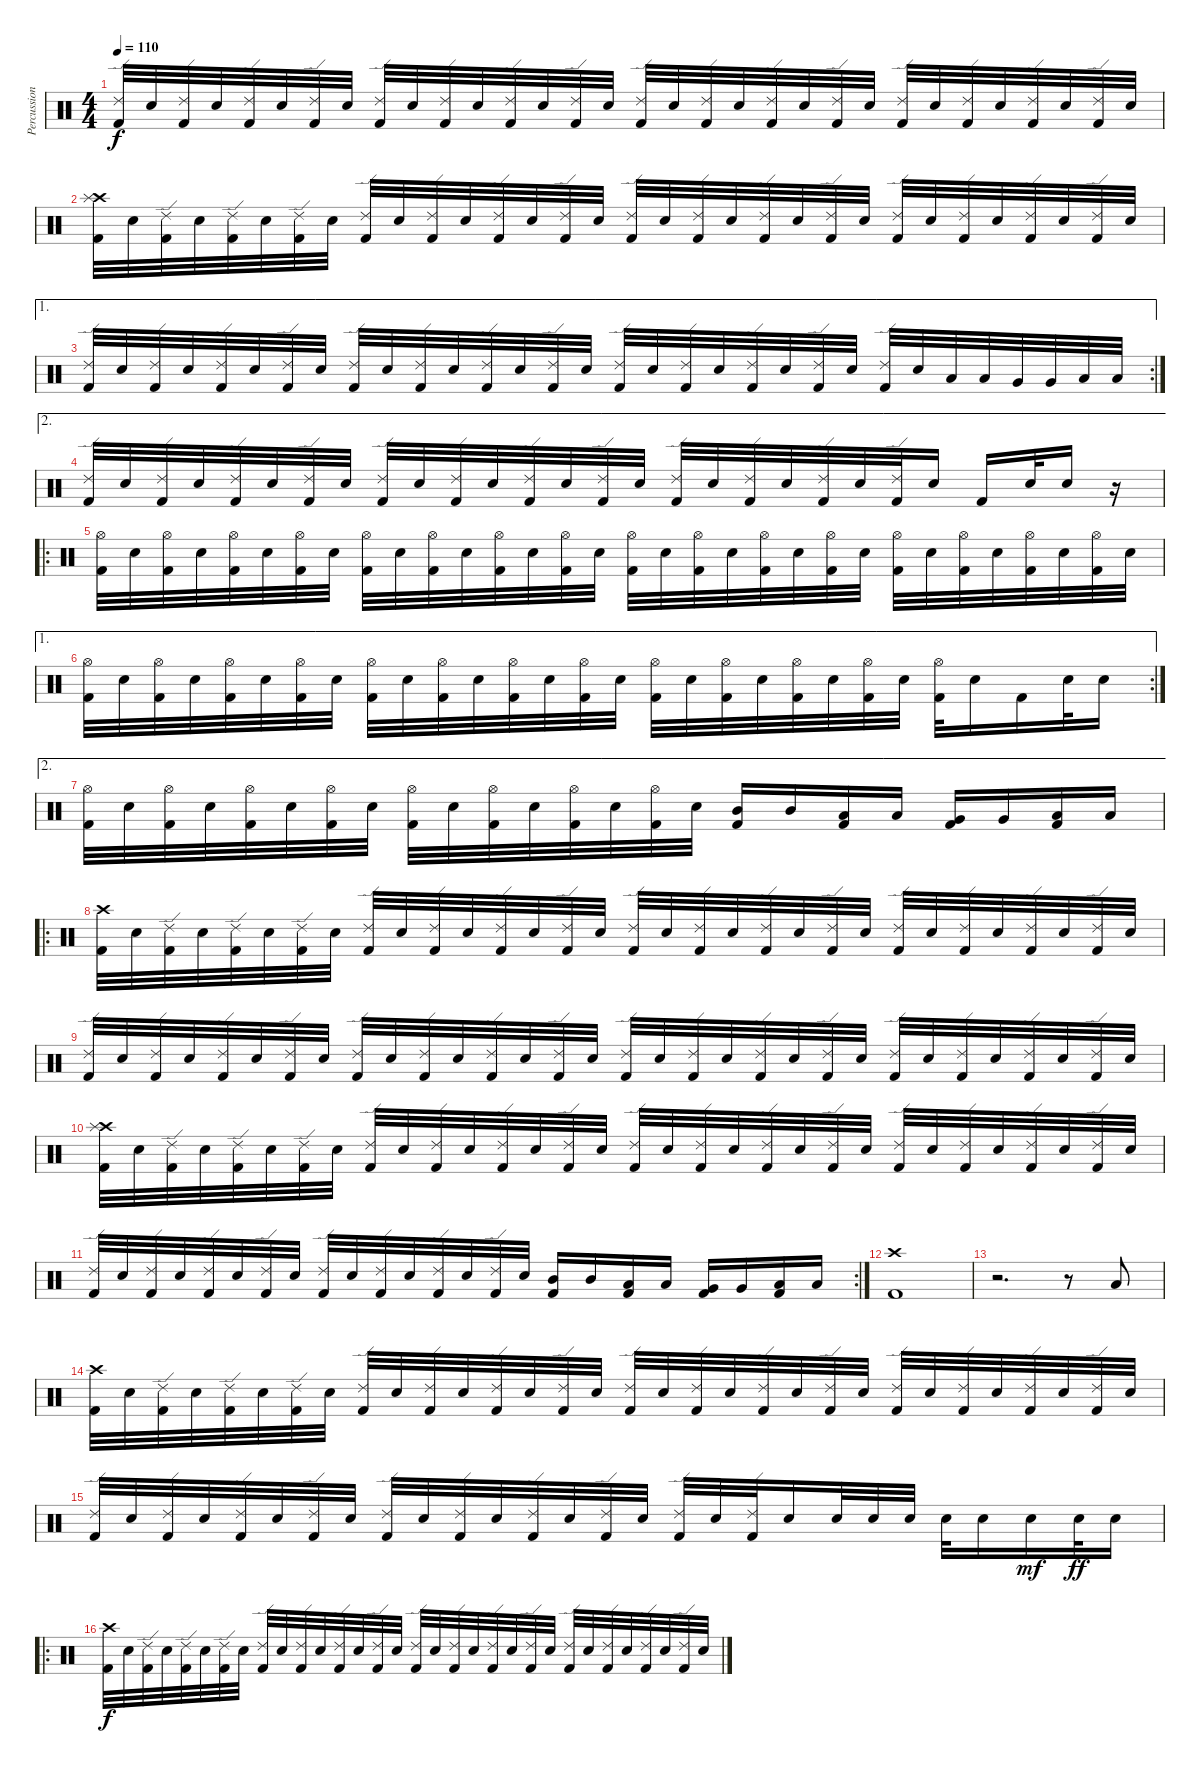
\track ("Percussion" "Percussion") {instrument percussion}
\staff {score}
\articulation defaults
\ts (4 4)
\tempo 110
\clef neutral
\ks c
("Ride (edge) 2" "Kick (hit) 2").32{dy f} "Snare (hit) 2".32 ("Ride (edge) 2" "Kick (hit) 2").32 "Snare (hit) 2".32 ("Ride (edge) 2" "Kick (hit) 2").32 "Snare (hit) 2".32 ("Ride (edge) 2" "Kick (hit) 2").32 "Snare (hit) 2".32 ("Ride (edge) 2" "Kick (hit) 2").32 "Snare (hit) 2".32 ("Ride (edge) 2" "Kick (hit) 2").32 "Snare (hit) 2".32 ("Ride (edge) 2" "Kick (hit) 2").32 "Snare (hit) 2".32 ("Ride (edge) 2" "Kick (hit) 2").32 "Snare (hit) 2".32 ("Ride (edge) 2" "Kick (hit) 2").32 "Snare (hit) 2".32 ("Ride (edge) 2" "Kick (hit) 2").32 "Snare (hit) 2".32 ("Ride (edge) 2" "Kick (hit) 2").32 "Snare (hit) 2".32 ("Ride (edge) 2" "Kick (hit) 2").32 "Snare (hit) 2".32 ("Ride (edge) 2" "Kick (hit) 2").32 "Snare (hit) 2".32 ("Ride (edge) 2" "Kick (hit) 2").32 "Snare (hit) 2".32 ("Ride (edge) 2" "Kick (hit) 2").32 "Snare (hit) 2".32 ("Ride (edge) 2" "Kick (hit) 2").32 "Snare (hit) 2".32 |
("Crash high (hit)" "Splash (hit)" "Kick (hit) 2").32 "Snare (hit) 2".32 ("Ride (edge) 2" "Kick (hit) 2").32 "Snare (hit) 2".32 ("Ride (edge) 2" "Kick (hit) 2").32 "Snare (hit) 2".32 ("Ride (edge) 2" "Kick (hit) 2").32 "Snare (hit) 2".32 ("Ride (edge) 2" "Kick (hit) 2").32 "Snare (hit) 2".32 ("Ride (edge) 2" "Kick (hit) 2").32 "Snare (hit) 2".32 ("Ride (edge) 2" "Kick (hit) 2").32 "Snare (hit) 2".32 ("Ride (edge) 2" "Kick (hit) 2").32 "Snare (hit) 2".32 ("Ride (edge) 2" "Kick (hit) 2").32 "Snare (hit) 2".32 ("Ride (edge) 2" "Kick (hit) 2").32 "Snare (hit) 2".32 ("Ride (edge) 2" "Kick (hit) 2").32 "Snare (hit) 2".32 ("Ride (edge) 2" "Kick (hit) 2").32 "Snare (hit) 2".32 ("Ride (edge) 2" "Kick (hit) 2").32 "Snare (hit) 2".32 ("Ride (edge) 2" "Kick (hit) 2").32 "Snare (hit) 2".32 ("Ride (edge) 2" "Kick (hit) 2").32 "Snare (hit) 2".32 ("Ride (edge) 2" "Kick (hit) 2").32 "Snare (hit) 2".32 |
\ae 1
\rc 2
("Ride (edge) 2" "Kick (hit) 2").32 "Snare (hit) 2".32 ("Ride (edge) 2" "Kick (hit) 2").32 "Snare (hit) 2".32 ("Ride (edge) 2" "Kick (hit) 2").32 "Snare (hit) 2".32 ("Ride (edge) 2" "Kick (hit) 2").32 "Snare (hit) 2".32 ("Ride (edge) 2" "Kick (hit) 2").32 "Snare (hit) 2".32 ("Ride (edge) 2" "Kick (hit) 2").32 "Snare (hit) 2".32 ("Ride (edge) 2" "Kick (hit) 2").32 "Snare (hit) 2".32 ("Ride (edge) 2" "Kick (hit) 2").32 "Snare (hit) 2".32 ("Ride (edge) 2" "Kick (hit) 2").32 "Snare (hit) 2".32 ("Ride (edge) 2" "Kick (hit) 2").32 "Snare (hit) 2".32 ("Ride (edge) 2" "Kick (hit) 2").32 "Snare (hit) 2".32 ("Ride (edge) 2" "Kick (hit) 2").32 "Snare (hit) 2".32 ("Ride (edge) 2" "Kick (hit) 2").32 "Snare (hit) 2".32 "Low Tom (hit)".32 "Low Tom (hit)".32 "Very Low Tom (hit)".32 "Very Low Tom (hit)".32 "Low Floor Tom (hit)".32 "Low Floor Tom (hit)".32 |
\ae 2
("Ride (edge) 2" "Kick (hit) 2").32 "Snare (hit) 2".32 ("Ride (edge) 2" "Kick (hit) 2").32 "Snare (hit) 2".32 ("Ride (edge) 2" "Kick (hit) 2").32 "Snare (hit) 2".32 ("Ride (edge) 2" "Kick (hit) 2").32 "Snare (hit) 2".32 ("Ride (edge) 2" "Kick (hit) 2").32 "Snare (hit) 2".32 ("Ride (edge) 2" "Kick (hit) 2").32 "Snare (hit) 2".32 ("Ride (edge) 2" "Kick (hit) 2").32 "Snare (hit) 2".32 ("Ride (edge) 2" "Kick (hit) 2").32 "Snare (hit) 2".32 ("Ride (edge) 2" "Kick (hit) 2").32 "Snare (hit) 2".32 ("Ride (edge) 2" "Kick (hit) 2").32 "Snare (hit) 2".32 ("Ride (edge) 2" "Kick (hit) 2").32 "Snare (hit) 2".32 ("Ride (edge) 2" "Kick (hit) 2").32 "Snare (hit) 2".16 "Kick (hit) 2".16 "Snare (hit) 2".32 "Snare (hit) 2".16 r.16 |
\ro
("Hi-Hat (open)" "Kick (hit) 2").32 "Snare (hit) 2".32 ("Hi-Hat (open)" "Kick (hit) 2").32 "Snare (hit) 2".32 ("Hi-Hat (open)" "Kick (hit) 2").32 "Snare (hit) 2".32 ("Hi-Hat (open)" "Kick (hit) 2").32 "Snare (hit) 2".32 ("Hi-Hat (open)" "Kick (hit) 2").32 "Snare (hit) 2".32 ("Hi-Hat (open)" "Kick (hit) 2").32 "Snare (hit) 2".32 ("Hi-Hat (open)" "Kick (hit) 2").32 "Snare (hit) 2".32 ("Hi-Hat (open)" "Kick (hit) 2").32 "Snare (hit) 2".32 ("Hi-Hat (open)" "Kick (hit) 2").32 "Snare (hit) 2".32 ("Hi-Hat (open)" "Kick (hit) 2").32 "Snare (hit) 2".32 ("Hi-Hat (open)" "Kick (hit) 2").32 "Snare (hit) 2".32 ("Hi-Hat (open)" "Kick (hit) 2").32 "Snare (hit) 2".32 ("Hi-Hat (open)" "Kick (hit) 2").32 "Snare (hit) 2".32 ("Hi-Hat (open)" "Kick (hit) 2").32 "Snare (hit) 2".32 ("Hi-Hat (open)" "Kick (hit) 2").32 "Snare (hit) 2".32 ("Hi-Hat (open)" "Kick (hit) 2").32 "Snare (hit) 2".32 |
\ae 1
\rc 2
("Hi-Hat (open)" "Kick (hit) 2").32 "Snare (hit) 2".32 ("Hi-Hat (open)" "Kick (hit) 2").32 "Snare (hit) 2".32 ("Hi-Hat (open)" "Kick (hit) 2").32 "Snare (hit) 2".32 ("Hi-Hat (open)" "Kick (hit) 2").32 "Snare (hit) 2".32 ("Hi-Hat (open)" "Kick (hit) 2").32 "Snare (hit) 2".32 ("Hi-Hat (open)" "Kick (hit) 2").32 "Snare (hit) 2".32 ("Hi-Hat (open)" "Kick (hit) 2").32 "Snare (hit) 2".32 ("Hi-Hat (open)" "Kick (hit) 2").32 "Snare (hit) 2".32 ("Hi-Hat (open)" "Kick (hit) 2").32 "Snare (hit) 2".32 ("Hi-Hat (open)" "Kick (hit) 2").32 "Snare (hit) 2".32 ("Hi-Hat (open)" "Kick (hit) 2").32 "Snare (hit) 2".32 ("Hi-Hat (open)" "Kick (hit) 2").32 "Snare (hit) 2".32 ("Hi-Hat (open)" "Kick (hit) 2").32 "Snare (hit) 2".16 "Kick (hit) 2".16 "Snare (hit) 2".32 "Snare (hit) 2".16 |
\ae 2
("Hi-Hat (open)" "Kick (hit) 2").32 "Snare (hit) 2".32 ("Hi-Hat (open)" "Kick (hit) 2").32 "Snare (hit) 2".32 ("Hi-Hat (open)" "Kick (hit) 2").32 "Snare (hit) 2".32 ("Hi-Hat (open)" "Kick (hit) 2").32 "Snare (hit) 2".32 ("Hi-Hat (open)" "Kick (hit) 2").32 "Snare (hit) 2".32 ("Hi-Hat (open)" "Kick (hit) 2").32 "Snare (hit) 2".32 ("Hi-Hat (open)" "Kick (hit) 2").32 "Snare (hit) 2".32 ("Hi-Hat (open)" "Kick (hit) 2").32 "Snare (hit) 2".32 ("Mid Tom (hit)" "Kick (hit) 2").16 "Mid Tom (hit)".16 ("Low Tom (hit)" "Kick (hit) 2").16 "Low Tom (hit)".16 ("Very Low Tom (hit)" "Kick (hit) 2").16 "Very Low Tom (hit)".16 ("Low Floor Tom (hit)" "Kick (hit) 2").16 "Low Floor Tom (hit)".16 |
\ro
("Crash high (hit)" "Kick (hit) 2").32 "Snare (hit) 2".32 ("Ride (edge) 2" "Kick (hit) 2").32 "Snare (hit) 2".32 ("Ride (edge) 2" "Kick (hit) 2").32 "Snare (hit) 2".32 ("Ride (edge) 2" "Kick (hit) 2").32 "Snare (hit) 2".32 ("Ride (edge) 2" "Kick (hit) 2").32 "Snare (hit) 2".32 ("Ride (edge) 2" "Kick (hit) 2").32 "Snare (hit) 2".32 ("Ride (edge) 2" "Kick (hit) 2").32 "Snare (hit) 2".32 ("Ride (edge) 2" "Kick (hit) 2").32 "Snare (hit) 2".32 ("Ride (edge) 2" "Kick (hit) 2").32 "Snare (hit) 2".32 ("Ride (edge) 2" "Kick (hit) 2").32 "Snare (hit) 2".32 ("Ride (edge) 2" "Kick (hit) 2").32 "Snare (hit) 2".32 ("Ride (edge) 2" "Kick (hit) 2").32 "Snare (hit) 2".32 ("Ride (edge) 2" "Kick (hit) 2").32 "Snare (hit) 2".32 ("Ride (edge) 2" "Kick (hit) 2").32 "Snare (hit) 2".32 ("Ride (edge) 2" "Kick (hit) 2").32 "Snare (hit) 2".32 ("Ride (edge) 2" "Kick (hit) 2").32 "Snare (hit) 2".32 |
("Ride (edge) 2" "Kick (hit) 2").32 "Snare (hit) 2".32 ("Ride (edge) 2" "Kick (hit) 2").32 "Snare (hit) 2".32 ("Ride (edge) 2" "Kick (hit) 2").32 "Snare (hit) 2".32 ("Ride (edge) 2" "Kick (hit) 2").32 "Snare (hit) 2".32 ("Ride (edge) 2" "Kick (hit) 2").32 "Snare (hit) 2".32 ("Ride (edge) 2" "Kick (hit) 2").32 "Snare (hit) 2".32 ("Ride (edge) 2" "Kick (hit) 2").32 "Snare (hit) 2".32 ("Ride (edge) 2" "Kick (hit) 2").32 "Snare (hit) 2".32 ("Ride (edge) 2" "Kick (hit) 2").32 "Snare (hit) 2".32 ("Ride (edge) 2" "Kick (hit) 2").32 "Snare (hit) 2".32 ("Ride (edge) 2" "Kick (hit) 2").32 "Snare (hit) 2".32 ("Ride (edge) 2" "Kick (hit) 2").32 "Snare (hit) 2".32 ("Ride (edge) 2" "Kick (hit) 2").32 "Snare (hit) 2".32 ("Ride (edge) 2" "Kick (hit) 2").32 "Snare (hit) 2".32 ("Ride (edge) 2" "Kick (hit) 2").32 "Snare (hit) 2".32 ("Ride (edge) 2" "Kick (hit) 2").32 "Snare (hit) 2".32 |
("Crash high (hit)" "Splash (hit)" "Kick (hit) 2").32 "Snare (hit) 2".32 ("Ride (edge) 2" "Kick (hit) 2").32 "Snare (hit) 2".32 ("Ride (edge) 2" "Kick (hit) 2").32 "Snare (hit) 2".32 ("Ride (edge) 2" "Kick (hit) 2").32 "Snare (hit) 2".32 ("Ride (edge) 2" "Kick (hit) 2").32 "Snare (hit) 2".32 ("Ride (edge) 2" "Kick (hit) 2").32 "Snare (hit) 2".32 ("Ride (edge) 2" "Kick (hit) 2").32 "Snare (hit) 2".32 ("Ride (edge) 2" "Kick (hit) 2").32 "Snare (hit) 2".32 ("Ride (edge) 2" "Kick (hit) 2").32 "Snare (hit) 2".32 ("Ride (edge) 2" "Kick (hit) 2").32 "Snare (hit) 2".32 ("Ride (edge) 2" "Kick (hit) 2").32 "Snare (hit) 2".32 ("Ride (edge) 2" "Kick (hit) 2").32 "Snare (hit) 2".32 ("Ride (edge) 2" "Kick (hit) 2").32 "Snare (hit) 2".32 ("Ride (edge) 2" "Kick (hit) 2").32 "Snare (hit) 2".32 ("Ride (edge) 2" "Kick (hit) 2").32 "Snare (hit) 2".32 ("Ride (edge) 2" "Kick (hit) 2").32 "Snare (hit) 2".32 |
\rc 2
("Ride (edge) 2" "Kick (hit) 2").32 "Snare (hit) 2".32 ("Ride (edge) 2" "Kick (hit) 2").32 "Snare (hit) 2".32 ("Ride (edge) 2" "Kick (hit) 2").32 "Snare (hit) 2".32 ("Ride (edge) 2" "Kick (hit) 2").32 "Snare (hit) 2".32 ("Ride (edge) 2" "Kick (hit) 2").32 "Snare (hit) 2".32 ("Ride (edge) 2" "Kick (hit) 2").32 "Snare (hit) 2".32 ("Ride (edge) 2" "Kick (hit) 2").32 "Snare (hit) 2".32 ("Ride (edge) 2" "Kick (hit) 2").32 "Snare (hit) 2".32 ("Mid Tom (hit)" "Kick (hit) 2").16 "Mid Tom (hit)".16 ("Low Tom (hit)" "Kick (hit) 2").16 "Low Tom (hit)".16 ("Very Low Tom (hit)" "Kick (hit) 2").16 "Very Low Tom (hit)".16 ("Low Floor Tom (hit)" "Kick (hit) 2").16 "Low Floor Tom (hit)".16 |
("Crash high (hit)" "Kick (hit) 2").1 |
r.2{d} r.8 "Low Floor Tom (hit)".8 |
("Crash high (hit)" "Kick (hit) 2").32 "Snare (hit) 2".32 ("Ride (edge) 2" "Kick (hit) 2").32 "Snare (hit) 2".32 ("Ride (edge) 2" "Kick (hit) 2").32 "Snare (hit) 2".32 ("Ride (edge) 2" "Kick (hit) 2").32 "Snare (hit) 2".32 ("Ride (edge) 2" "Kick (hit) 2").32 "Snare (hit) 2".32 ("Ride (edge) 2" "Kick (hit) 2").32 "Snare (hit) 2".32 ("Ride (edge) 2" "Kick (hit) 2").32 "Snare (hit) 2".32 ("Ride (edge) 2" "Kick (hit) 2").32 "Snare (hit) 2".32 ("Ride (edge) 2" "Kick (hit) 2").32 "Snare (hit) 2".32 ("Ride (edge) 2" "Kick (hit) 2").32 "Snare (hit) 2".32 ("Ride (edge) 2" "Kick (hit) 2").32 "Snare (hit) 2".32 ("Ride (edge) 2" "Kick (hit) 2").32 "Snare (hit) 2".32 ("Ride (edge) 2" "Kick (hit) 2").32 "Snare (hit) 2".32 ("Ride (edge) 2" "Kick (hit) 2").32 "Snare (hit) 2".32 ("Ride (edge) 2" "Kick (hit) 2").32 "Snare (hit) 2".32 ("Ride (edge) 2" "Kick (hit) 2").32 "Snare (hit) 2".32 |
("Ride (edge) 2" "Kick (hit) 2").32 "Snare (hit) 2".32 ("Ride (edge) 2" "Kick (hit) 2").32 "Snare (hit) 2".32 ("Ride (edge) 2" "Kick (hit) 2").32 "Snare (hit) 2".32 ("Ride (edge) 2" "Kick (hit) 2").32 "Snare (hit) 2".32 ("Ride (edge) 2" "Kick (hit) 2").32 "Snare (hit) 2".32 ("Ride (edge) 2" "Kick (hit) 2").32 "Snare (hit) 2".32 ("Ride (edge) 2" "Kick (hit) 2").32 "Snare (hit) 2".32 ("Ride (edge) 2" "Kick (hit) 2").32 "Snare (hit) 2".32 ("Ride (edge) 2" "Kick (hit) 2").32 "Snare (hit) 2".32 ("Ride (edge) 2" "Kick (hit) 2").32 "Snare (hit) 2".16 "Snare (hit) 2".32 "Snare (hit) 2".32 "Snare (hit) 2".32 "Snare (hit) 2".32 "Snare (hit) 2".16 "Snare (hit) 2".16{dy mf} "Snare (hit) 2".32{dy ff} "Snare (hit) 2".16 |
\ro
("Crash high (hit)" "Kick (hit) 2").32{dy f} "Snare (hit) 2".32 ("Ride (edge) 2" "Kick (hit) 2").32 "Snare (hit) 2".32 ("Ride (edge) 2" "Kick (hit) 2").32 "Snare (hit) 2".32 ("Ride (edge) 2" "Kick (hit) 2").32 "Snare (hit) 2".32 ("Ride (edge) 2" "Kick (hit) 2").32 "Snare (hit) 2".32 ("Ride (edge) 2" "Kick (hit) 2").32 "Snare (hit) 2".32 ("Ride (edge) 2" "Kick (hit) 2").32 "Snare (hit) 2".32 ("Ride (edge) 2" "Kick (hit) 2").32 "Snare (hit) 2".32 ("Ride (edge) 2" "Kick (hit) 2").32 "Snare (hit) 2".32 ("Ride (edge) 2" "Kick (hit) 2").32 "Snare (hit) 2".32 ("Ride (edge) 2" "Kick (hit) 2").32 "Snare (hit) 2".32 ("Ride (edge) 2" "Kick (hit) 2").32 "Snare (hit) 2".32 ("Ride (edge) 2" "Kick (hit) 2").32 "Snare (hit) 2".32 ("Ride (edge) 2" "Kick (hit) 2").32 "Snare (hit) 2".32 ("Ride (edge) 2" "Kick (hit) 2").32 "Snare (hit) 2".32 ("Ride (edge) 2" "Kick (hit) 2").32 "Snare (hit) 2".32
